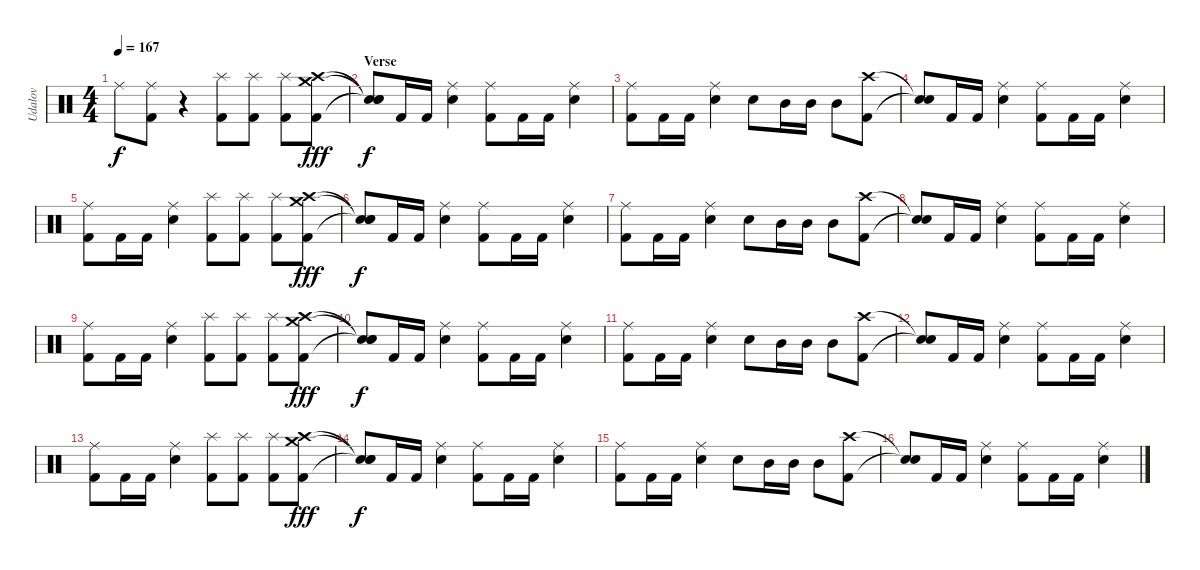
\track ("Udalov" "Udalov") {instrument percussion}
\staff {score}
\articulation defaults
\ts (4 4)
\tempo 167
\clef neutral
\ks c "Ride (middle)".8{dy f}
("Kick (hit) 2" "Ride (middle)").8 r.4 ("Kick (hit) 2" "Splash (hit)").8 ("Kick (hit) 2" "Splash (hit)").8 ("Kick (hit) 2" "Splash (hit)").8 ("Kick (hit) 2" "Crash high (hit)" "Crash medium (hit)").8{dy fff} |
\section ("" "Verse")
("Snare (hit)"{t} "Snare (hit)"{t} "Snare (hit)"{t}).8{dy f} "Kick (hit) 2".16 "Kick (hit) 2".16 ("Snare (hit) 2" "Ride (middle)").4 ("Kick (hit) 2" "Ride (middle)").8 "Kick (hit) 2".16 "Kick (hit) 2".16 ("Snare (hit) 2" "Ride (middle)").4 |
("Kick (hit) 2" "Ride (middle)").8 "Kick (hit) 2".16 "Kick (hit) 2".16 ("Snare (hit) 2" "Ride (middle)").4 "Snare (hit) 2".8 "Mid Tom (hit)".16 "Mid Tom (hit)".16 "Mid Tom (hit)".8 ("Kick (hit) 2" "Crash high (hit)").8 |
("Snare (hit)"{t} "Snare (hit)"{t}).8 "Kick (hit) 2".16 "Kick (hit) 2".16 ("Snare (hit) 2" "Ride (middle)").4 ("Kick (hit) 2" "Ride (middle)").8 "Kick (hit) 2".16 "Kick (hit) 2".16 ("Snare (hit) 2" "Ride (middle)").4 |
("Kick (hit) 2" "Ride (middle)").8 "Kick (hit) 2".16 "Kick (hit) 2".16 ("Snare (hit) 2" "Ride (middle)").4 ("Kick (hit) 2" "Splash (hit)").8 ("Kick (hit) 2" "Splash (hit)").8 ("Kick (hit) 2" "Splash (hit)").8 ("Kick (hit) 2" "Crash medium (hit)" "Crash high (hit)").8{dy fff} |
("Snare (hit)"{t} "Snare (hit)"{t} "Snare (hit)"{t}).8{dy f} "Kick (hit) 2".16 "Kick (hit) 2".16 ("Snare (hit) 2" "Ride (middle)").4 ("Kick (hit) 2" "Ride (middle)").8 "Kick (hit) 2".16 "Kick (hit) 2".16 ("Snare (hit) 2" "Ride (middle)").4 |
("Kick (hit) 2" "Ride (middle)").8 "Kick (hit) 2".16 "Kick (hit) 2".16 ("Snare (hit) 2" "Ride (middle)").4 "Snare (hit) 2".8 "Mid Tom (hit)".16 "Mid Tom (hit)".16 "Mid Tom (hit)".8 ("Kick (hit) 2" "Crash high (hit)").8 |
("Snare (hit)"{t} "Snare (hit)"{t}).8 "Kick (hit) 2".16 "Kick (hit) 2".16 ("Snare (hit) 2" "Ride (middle)").4 ("Kick (hit) 2" "Ride (middle)").8 "Kick (hit) 2".16 "Kick (hit) 2".16 ("Snare (hit) 2" "Ride (middle)").4 |
("Kick (hit) 2" "Ride (middle)").8 "Kick (hit) 2".16 "Kick (hit) 2".16 ("Snare (hit) 2" "Ride (middle)").4 ("Kick (hit) 2" "Splash (hit)").8 ("Kick (hit) 2" "Splash (hit)").8 ("Kick (hit) 2" "Splash (hit)").8 ("Kick (hit) 2" "Crash medium (hit)" "Crash high (hit)").8{dy fff} |
("Snare (hit)"{t} "Snare (hit)"{t} "Snare (hit)"{t}).8{dy f} "Kick (hit) 2".16 "Kick (hit) 2".16 ("Snare (hit) 2" "Ride (middle)").4 ("Kick (hit) 2" "Ride (middle)").8 "Kick (hit) 2".16 "Kick (hit) 2".16 ("Snare (hit) 2" "Ride (middle)").4 |
("Kick (hit) 2" "Ride (middle)").8 "Kick (hit) 2".16 "Kick (hit) 2".16 ("Snare (hit) 2" "Ride (middle)").4 "Snare (hit) 2".8 "Mid Tom (hit)".16 "Mid Tom (hit)".16 "Mid Tom (hit)".8 ("Kick (hit) 2" "Crash high (hit)").8 |
("Snare (hit)"{t} "Snare (hit)"{t}).8 "Kick (hit) 2".16 "Kick (hit) 2".16 ("Snare (hit) 2" "Ride (middle)").4 ("Kick (hit) 2" "Ride (middle)").8 "Kick (hit) 2".16 "Kick (hit) 2".16 ("Snare (hit) 2" "Ride (middle)").4 |
("Kick (hit) 2" "Ride (middle)").8 "Kick (hit) 2".16 "Kick (hit) 2".16 ("Snare (hit) 2" "Ride (middle)").4 ("Kick (hit) 2" "Splash (hit)").8 ("Kick (hit) 2" "Splash (hit)").8 ("Kick (hit) 2" "Splash (hit)").8 ("Kick (hit) 2" "Crash medium (hit)" "Crash high (hit)").8{dy fff} |
("Snare (hit)"{t} "Snare (hit)"{t} "Snare (hit)"{t}).8{dy f} "Kick (hit) 2".16 "Kick (hit) 2".16 ("Snare (hit) 2" "Ride (middle)").4 ("Kick (hit) 2" "Ride (middle)").8 "Kick (hit) 2".16 "Kick (hit) 2".16 ("Snare (hit) 2" "Ride (middle)").4 |
("Kick (hit) 2" "Ride (middle)").8 "Kick (hit) 2".16 "Kick (hit) 2".16 ("Snare (hit) 2" "Ride (middle)").4 "Snare (hit) 2".8 "Mid Tom (hit)".16 "Mid Tom (hit)".16 "Mid Tom (hit)".8 ("Kick (hit) 2" "Crash high (hit)").8 |
("Snare (hit)"{t} "Snare (hit)"{t}).8 "Kick (hit) 2".16 "Kick (hit) 2".16 ("Snare (hit) 2" "Ride (middle)").4 ("Kick (hit) 2" "Ride (middle)").8 "Kick (hit) 2".16 "Kick (hit) 2".16 ("Snare (hit) 2" "Ride (middle)").4
